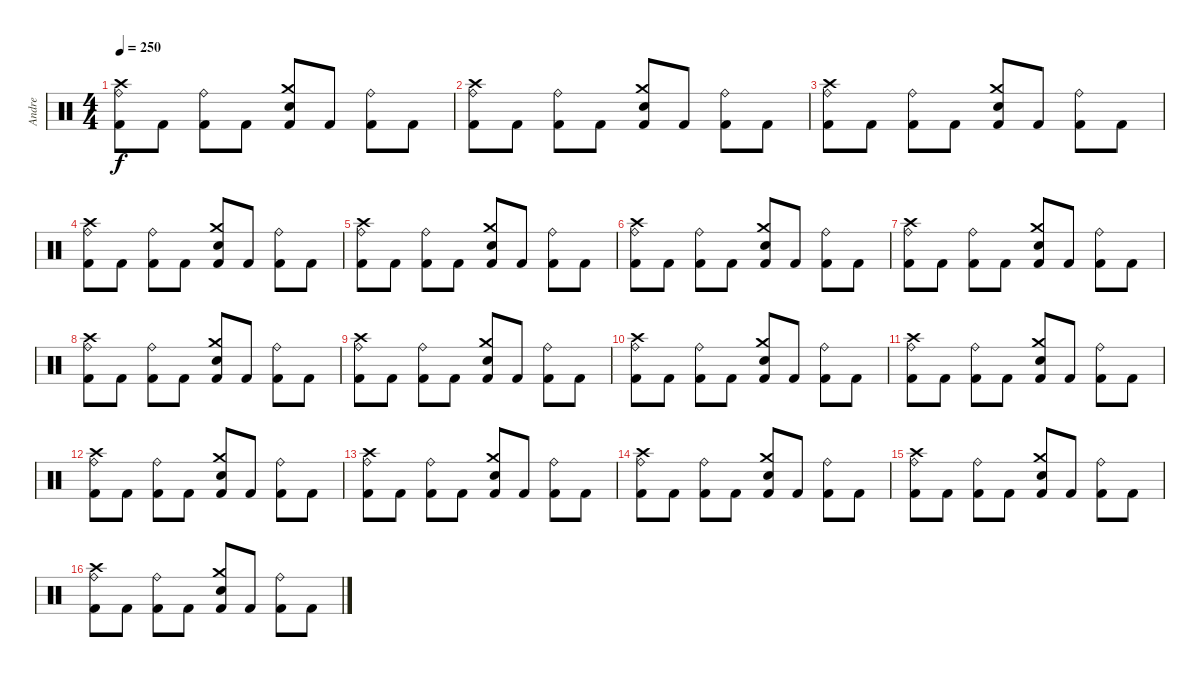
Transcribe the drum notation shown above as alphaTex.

\track ("Andre" "Andre") {instrument percussion}
\staff {score}
\articulation defaults
\ts (4 4)
\tempo 250
\clef neutral
\ks c
("Crash high (hit)" "Ride (bell)" "Kick (hit) 2").8{dy f} "Kick (hit) 2".8 ("Ride (bell)" "Kick (hit) 2").8 "Kick (hit) 2".8 ("Crash medium (hit)" "Snare (hit) 2" "Kick (hit) 2").8 "Kick (hit) 2".8 ("Ride (bell)" "Kick (hit) 2").8 "Kick (hit) 2".8 |
("Crash high (hit)" "Ride (bell)" "Kick (hit) 2").8 "Kick (hit) 2".8 ("Ride (bell)" "Kick (hit) 2").8 "Kick (hit) 2".8 ("Crash medium (hit)" "Snare (hit) 2" "Kick (hit) 2").8 "Kick (hit) 2".8 ("Ride (bell)" "Kick (hit) 2").8 "Kick (hit) 2".8 |
("Crash high (hit)" "Ride (bell)" "Kick (hit) 2").8 "Kick (hit) 2".8 ("Ride (bell)" "Kick (hit) 2").8 "Kick (hit) 2".8 ("Crash medium (hit)" "Snare (hit) 2" "Kick (hit) 2").8 "Kick (hit) 2".8 ("Ride (bell)" "Kick (hit) 2").8 "Kick (hit) 2".8 |
("Crash high (hit)" "Ride (bell)" "Kick (hit) 2").8 "Kick (hit) 2".8 ("Ride (bell)" "Kick (hit) 2").8 "Kick (hit) 2".8 ("Crash medium (hit)" "Snare (hit) 2" "Kick (hit) 2").8 "Kick (hit) 2".8 ("Ride (bell)" "Kick (hit) 2").8 "Kick (hit) 2".8 |
("Crash high (hit)" "Ride (bell)" "Kick (hit) 2").8 "Kick (hit) 2".8 ("Ride (bell)" "Kick (hit) 2").8 "Kick (hit) 2".8 ("Crash medium (hit)" "Snare (hit) 2" "Kick (hit) 2").8 "Kick (hit) 2".8 ("Ride (bell)" "Kick (hit) 2").8 "Kick (hit) 2".8 |
("Crash high (hit)" "Ride (bell)" "Kick (hit) 2").8 "Kick (hit) 2".8 ("Ride (bell)" "Kick (hit) 2").8 "Kick (hit) 2".8 ("Crash medium (hit)" "Snare (hit) 2" "Kick (hit) 2").8 "Kick (hit) 2".8 ("Ride (bell)" "Kick (hit) 2").8 "Kick (hit) 2".8 |
("Crash high (hit)" "Ride (bell)" "Kick (hit) 2").8 "Kick (hit) 2".8 ("Ride (bell)" "Kick (hit) 2").8 "Kick (hit) 2".8 ("Crash medium (hit)" "Snare (hit) 2" "Kick (hit) 2").8 "Kick (hit) 2".8 ("Ride (bell)" "Kick (hit) 2").8 "Kick (hit) 2".8 |
("Crash high (hit)" "Ride (bell)" "Kick (hit) 2").8 "Kick (hit) 2".8 ("Ride (bell)" "Kick (hit) 2").8 "Kick (hit) 2".8 ("Crash medium (hit)" "Snare (hit) 2" "Kick (hit) 2").8 "Kick (hit) 2".8 ("Ride (bell)" "Kick (hit) 2").8 "Kick (hit) 2".8 |
("Crash high (hit)" "Ride (bell)" "Kick (hit) 2").8 "Kick (hit) 2".8 ("Ride (bell)" "Kick (hit) 2").8 "Kick (hit) 2".8 ("Crash medium (hit)" "Snare (hit) 2" "Kick (hit) 2").8 "Kick (hit) 2".8 ("Ride (bell)" "Kick (hit) 2").8 "Kick (hit) 2".8 |
("Crash high (hit)" "Ride (bell)" "Kick (hit) 2").8 "Kick (hit) 2".8 ("Ride (bell)" "Kick (hit) 2").8 "Kick (hit) 2".8 ("Crash medium (hit)" "Snare (hit) 2" "Kick (hit) 2").8 "Kick (hit) 2".8 ("Ride (bell)" "Kick (hit) 2").8 "Kick (hit) 2".8 |
("Crash high (hit)" "Ride (bell)" "Kick (hit) 2").8 "Kick (hit) 2".8 ("Ride (bell)" "Kick (hit) 2").8 "Kick (hit) 2".8 ("Crash medium (hit)" "Snare (hit) 2" "Kick (hit) 2").8 "Kick (hit) 2".8 ("Ride (bell)" "Kick (hit) 2").8 "Kick (hit) 2".8 |
("Crash high (hit)" "Ride (bell)" "Kick (hit) 2").8 "Kick (hit) 2".8 ("Ride (bell)" "Kick (hit) 2").8 "Kick (hit) 2".8 ("Crash medium (hit)" "Snare (hit) 2" "Kick (hit) 2").8 "Kick (hit) 2".8 ("Ride (bell)" "Kick (hit) 2").8 "Kick (hit) 2".8 |
("Crash high (hit)" "Ride (bell)" "Kick (hit) 2").8 "Kick (hit) 2".8 ("Ride (bell)" "Kick (hit) 2").8 "Kick (hit) 2".8 ("Crash medium (hit)" "Snare (hit) 2" "Kick (hit) 2").8 "Kick (hit) 2".8 ("Ride (bell)" "Kick (hit) 2").8 "Kick (hit) 2".8 |
("Crash high (hit)" "Ride (bell)" "Kick (hit) 2").8 "Kick (hit) 2".8 ("Ride (bell)" "Kick (hit) 2").8 "Kick (hit) 2".8 ("Crash medium (hit)" "Snare (hit) 2" "Kick (hit) 2").8 "Kick (hit) 2".8 ("Ride (bell)" "Kick (hit) 2").8 "Kick (hit) 2".8 |
("Crash high (hit)" "Ride (bell)" "Kick (hit) 2").8 "Kick (hit) 2".8 ("Ride (bell)" "Kick (hit) 2").8 "Kick (hit) 2".8 ("Crash medium (hit)" "Snare (hit) 2" "Kick (hit) 2").8 "Kick (hit) 2".8 ("Ride (bell)" "Kick (hit) 2").8 "Kick (hit) 2".8 |
("Crash high (hit)" "Ride (bell)" "Kick (hit) 2").8 "Kick (hit) 2".8 ("Ride (bell)" "Kick (hit) 2").8 "Kick (hit) 2".8 ("Crash medium (hit)" "Snare (hit) 2" "Kick (hit) 2").8 "Kick (hit) 2".8 ("Ride (bell)" "Kick (hit) 2").8 "Kick (hit) 2".8
